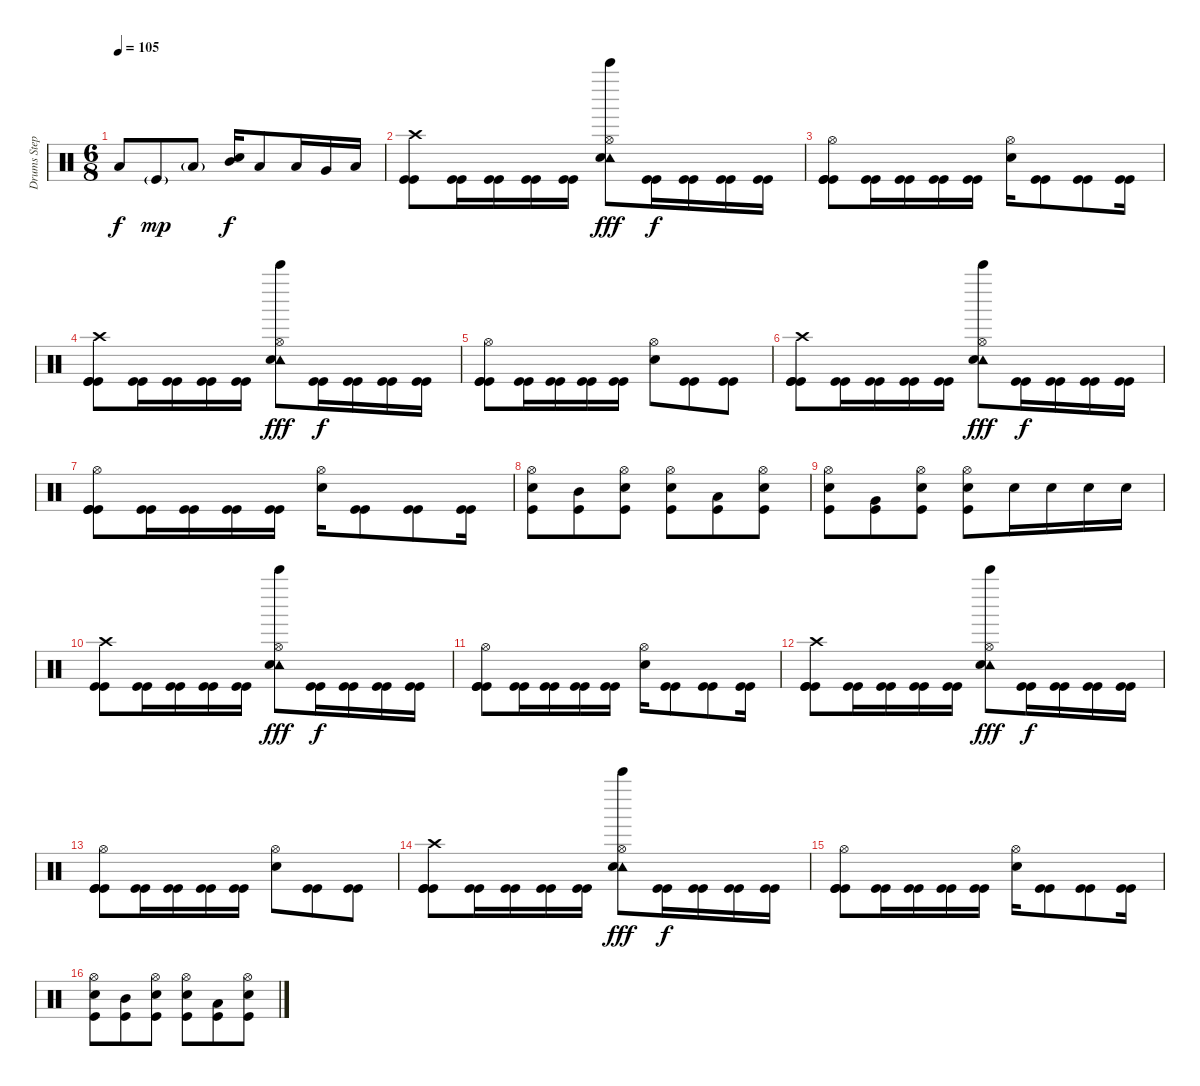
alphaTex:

\track ("Drums Stephen van Haestregt" "Drums Step") {instrument percussion}
\staff {score}
\articulation defaults
\ts (6 8)
\tempo 105
\clef neutral
\ks c "Low Floor Tom (hit)".8{dy f} "Kick (hit)"{g}.8{dy mp} "Low Floor Tom (hit)"{g}.8
("Mid Tom (hit)" "Snare (hit) 2").16{dy f} "Low Tom (hit)".8 "Low Tom (hit)".16 "Very Low Tom (hit)".16 "Low Tom (hit)".16 |
("Kick (hit)" "Kick (hit)" "Crash high (hit)").8 ("Kick (hit)" "Kick (hit)").16 ("Kick (hit)" "Kick (hit)").16 ("Kick (hit)" "Kick (hit)").16 ("Kick (hit)" "Kick (hit)").16 ("Tambourine (hit)" "Bell Tree (hit)" "Snare (hit) 2" "Hi-Hat (open)").8{dy fff} ("Kick (hit)" "Kick (hit)").16{dy f} ("Kick (hit)" "Kick (hit)").16 ("Kick (hit)" "Kick (hit)").16 ("Kick (hit)" "Kick (hit)").16 |
("Kick (hit)" "Kick (hit)" "Kick (hit)" "Hi-Hat (open)").8 ("Kick (hit)" "Kick (hit)").16 ("Kick (hit)" "Kick (hit)").16 ("Kick (hit)" "Kick (hit)").16 ("Kick (hit)" "Kick (hit)").16 ("Snare (hit) 2" "Hi-Hat (open)").16 ("Kick (hit)" "Kick (hit)").8 ("Kick (hit)" "Kick (hit)").8 ("Kick (hit)" "Kick (hit)").16 |
("Kick (hit)" "Kick (hit)" "Kick (hit)" "Crash high (hit)").8 ("Kick (hit)" "Kick (hit)").16 ("Kick (hit)" "Kick (hit)").16 ("Kick (hit)" "Kick (hit)").16 ("Kick (hit)" "Kick (hit)").16 ("Tambourine (hit)" "Bell Tree (hit)" "Snare (hit) 2" "Hi-Hat (open)").8{dy fff} ("Kick (hit)" "Kick (hit)").16{dy f} ("Kick (hit)" "Kick (hit)").16 ("Kick (hit)" "Kick (hit)").16 ("Kick (hit)" "Kick (hit)").16 |
("Kick (hit)" "Kick (hit)" "Kick (hit)" "Hi-Hat (open)").8 ("Kick (hit)" "Kick (hit)").16 ("Kick (hit)" "Kick (hit)").16 ("Kick (hit)" "Kick (hit)").16 ("Kick (hit)" "Kick (hit)").16 ("Snare (hit) 2" "Hi-Hat (open)").8 ("Kick (hit)" "Kick (hit)").8 ("Kick (hit)" "Kick (hit)").8 |
("Kick (hit)" "Kick (hit)" "Kick (hit)" "Crash high (hit)").8 ("Kick (hit)" "Kick (hit)").16 ("Kick (hit)" "Kick (hit)").16 ("Kick (hit)" "Kick (hit)").16 ("Kick (hit)" "Kick (hit)").16 ("Bell Tree (hit)" "Tambourine (hit)" "Snare (hit) 2" "Hi-Hat (open)").8{dy fff} ("Kick (hit)" "Kick (hit)").16{dy f} ("Kick (hit)" "Kick (hit)").16 ("Kick (hit)" "Kick (hit)").16 ("Kick (hit)" "Kick (hit)").16 |
("Kick (hit)" "Kick (hit)" "Kick (hit)" "Hi-Hat (open)").8 ("Kick (hit)" "Kick (hit)").16 ("Kick (hit)" "Kick (hit)").16 ("Kick (hit)" "Kick (hit)").16 ("Kick (hit)" "Kick (hit)").16 ("Snare (hit) 2" "Hi-Hat (open)").16 ("Kick (hit)" "Kick (hit)").8 ("Kick (hit)" "Kick (hit)").8 ("Kick (hit)" "Kick (hit)").16 |
("Kick (hit)" "Snare (hit) 2" "Hi-Hat (open)").8 ("Kick (hit)" "Mid Tom (hit)").8 ("Kick (hit)" "Snare (hit) 2" "Hi-Hat (open)").8 ("Kick (hit)" "Snare (hit) 2" "Hi-Hat (open)").8 ("Kick (hit)" "Low Tom (hit)").8 ("Kick (hit)" "Snare (hit) 2" "Hi-Hat (open)").8 |
("Kick (hit)" "Snare (hit) 2" "Hi-Hat (open)").8 ("Kick (hit)" "Very Low Tom (hit)").8 ("Kick (hit)" "Snare (hit) 2" "Hi-Hat (open)").8 ("Kick (hit)" "Snare (hit) 2" "Hi-Hat (open)").8 "Snare (hit) 2".16 "Snare (hit) 2".16 "Snare (hit) 2".16 "Snare (hit) 2".16 |
("Kick (hit)" "Kick (hit)" "Crash high (hit)").8 ("Kick (hit)" "Kick (hit)").16 ("Kick (hit)" "Kick (hit)").16 ("Kick (hit)" "Kick (hit)").16 ("Kick (hit)" "Kick (hit)").16 ("Bell Tree (hit)" "Tambourine (hit)" "Snare (hit) 2" "Hi-Hat (open)").8{dy fff} ("Kick (hit)" "Kick (hit)").16{dy f} ("Kick (hit)" "Kick (hit)").16 ("Kick (hit)" "Kick (hit)").16 ("Kick (hit)" "Kick (hit)").16 |
("Kick (hit)" "Kick (hit)" "Kick (hit)" "Hi-Hat (open)").8 ("Kick (hit)" "Kick (hit)").16 ("Kick (hit)" "Kick (hit)").16 ("Kick (hit)" "Kick (hit)").16 ("Kick (hit)" "Kick (hit)").16 ("Snare (hit) 2" "Hi-Hat (open)").16 ("Kick (hit)" "Kick (hit)").8 ("Kick (hit)" "Kick (hit)").8 ("Kick (hit)" "Kick (hit)").16 |
("Kick (hit)" "Kick (hit)" "Kick (hit)" "Crash high (hit)").8 ("Kick (hit)" "Kick (hit)").16 ("Kick (hit)" "Kick (hit)").16 ("Kick (hit)" "Kick (hit)").16 ("Kick (hit)" "Kick (hit)").16 ("Bell Tree (hit)" "Tambourine (hit)" "Snare (hit) 2" "Hi-Hat (open)").8{dy fff} ("Kick (hit)" "Kick (hit)").16{dy f} ("Kick (hit)" "Kick (hit)").16 ("Kick (hit)" "Kick (hit)").16 ("Kick (hit)" "Kick (hit)").16 |
("Kick (hit)" "Kick (hit)" "Kick (hit)" "Hi-Hat (open)").8 ("Kick (hit)" "Kick (hit)").16 ("Kick (hit)" "Kick (hit)").16 ("Kick (hit)" "Kick (hit)").16 ("Kick (hit)" "Kick (hit)").16 ("Snare (hit) 2" "Hi-Hat (open)").8 ("Kick (hit)" "Kick (hit)").8 ("Kick (hit)" "Kick (hit)").8 |
("Kick (hit)" "Kick (hit)" "Kick (hit)" "Crash high (hit)").8 ("Kick (hit)" "Kick (hit)").16 ("Kick (hit)" "Kick (hit)").16 ("Kick (hit)" "Kick (hit)").16 ("Kick (hit)" "Kick (hit)").16 ("Bell Tree (hit)" "Tambourine (hit)" "Snare (hit) 2" "Hi-Hat (open)").8{dy fff} ("Kick (hit)" "Kick (hit)").16{dy f} ("Kick (hit)" "Kick (hit)").16 ("Kick (hit)" "Kick (hit)").16 ("Kick (hit)" "Kick (hit)").16 |
("Kick (hit)" "Kick (hit)" "Kick (hit)" "Hi-Hat (open)").8 ("Kick (hit)" "Kick (hit)").16 ("Kick (hit)" "Kick (hit)").16 ("Kick (hit)" "Kick (hit)").16 ("Kick (hit)" "Kick (hit)").16 ("Snare (hit) 2" "Hi-Hat (open)").16 ("Kick (hit)" "Kick (hit)").8 ("Kick (hit)" "Kick (hit)").8 ("Kick (hit)" "Kick (hit)").16 |
("Kick (hit)" "Snare (hit) 2" "Hi-Hat (open)").8 ("Kick (hit)" "Mid Tom (hit)").8 ("Kick (hit)" "Snare (hit) 2" "Hi-Hat (open)").8 ("Kick (hit)" "Snare (hit) 2" "Hi-Hat (open)").8 ("Kick (hit)" "Low Tom (hit)").8 ("Kick (hit)" "Snare (hit) 2" "Hi-Hat (open)").8
